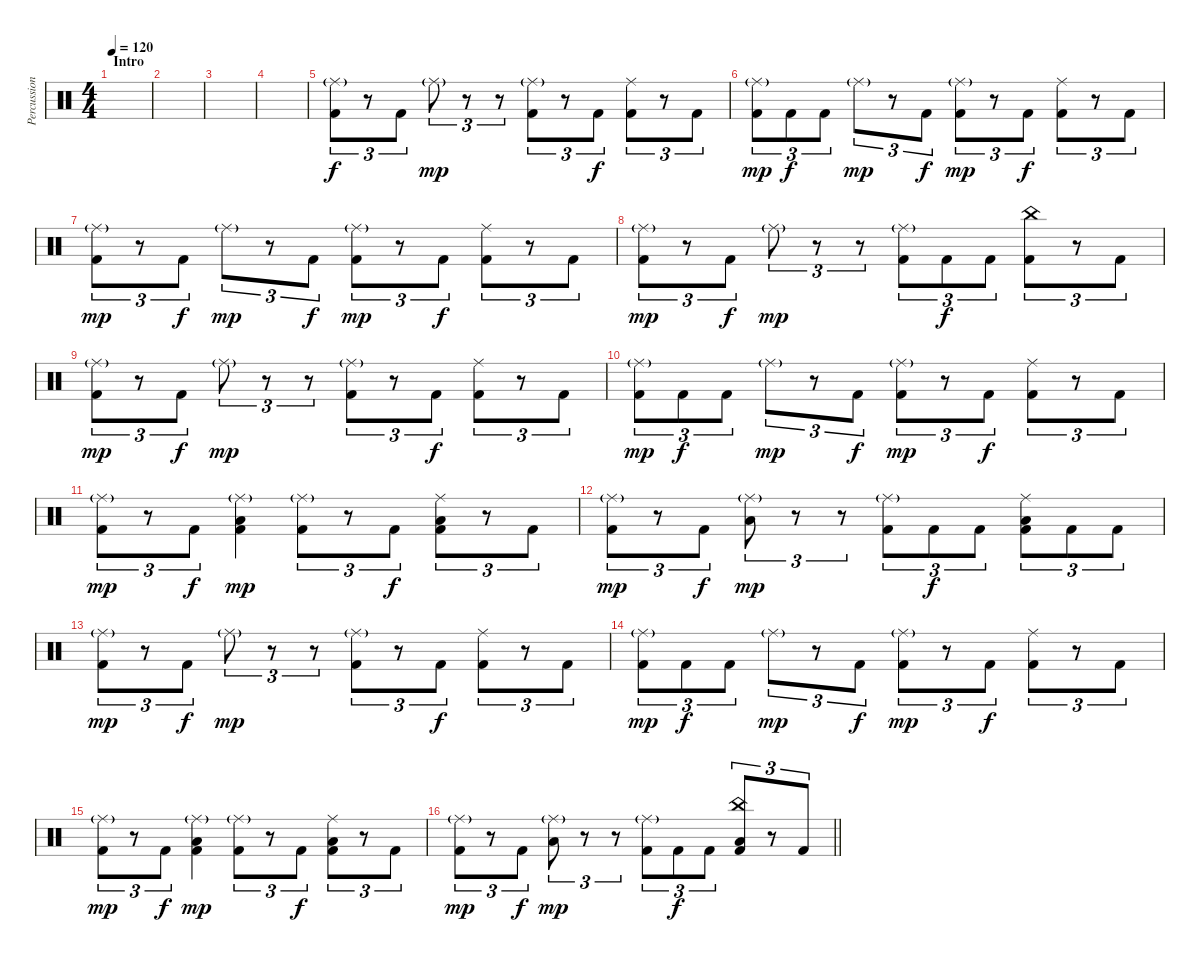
\track ("Percussion" "Percussion") {instrument percussion}
\staff {score}
\articulation defaults
\ts (4 4)
\section ("" "Intro")
\tempo 120
\clef neutral
\ks c
|
|
|
|
("Ride (middle)"{g} "Kick (hit) 2").8{tu (3 2)} r.8{tu (3 2)} "Kick (hit) 2".8{tu (3 2) dy f} "Ride (middle)"{g}.8{tu (3 2) dy mp} r.8{tu (3 2)} r.8{tu (3 2)} ("Ride (middle)"{g} "Kick (hit) 2").8{tu (3 2)} r.8{tu (3 2)} "Kick (hit) 2".8{tu (3 2) dy f} ("Ride (middle)" "Kick (hit) 2").8{tu (3 2)} r.8{tu (3 2)} "Kick (hit) 2".8{tu (3 2)} |
("Ride (middle)"{g} "Kick (hit) 2").8{tu (3 2) dy mp} "Kick (hit) 2".8{tu (3 2) dy f} "Kick (hit) 2".8{tu (3 2)} "Ride (middle)"{g}.8{tu (3 2) dy mp} r.8{tu (3 2)} "Kick (hit) 2".8{tu (3 2) dy f} ("Ride (middle)"{g} "Kick (hit) 2").8{tu (3 2) dy mp} r.8{tu (3 2)} "Kick (hit) 2".8{tu (3 2) dy f} ("Ride (middle)" "Kick (hit) 2").8{tu (3 2)} r.8{tu (3 2)} "Kick (hit) 2".8{tu (3 2)} |
("Ride (middle)"{g} "Kick (hit) 2").8{tu (3 2) dy mp} r.8{tu (3 2)} "Kick (hit) 2".8{tu (3 2) dy f} "Ride (middle)"{g}.8{tu (3 2) dy mp} r.8{tu (3 2)} "Kick (hit) 2".8{tu (3 2) dy f} ("Ride (middle)"{g} "Kick (hit) 2").8{tu (3 2) dy mp} r.8{tu (3 2)} "Kick (hit) 2".8{tu (3 2) dy f} ("Ride (middle)" "Kick (hit) 2").8{tu (3 2)} r.8{tu (3 2)} "Kick (hit) 2".8{tu (3 2)} |
("Ride (middle)"{g} "Kick (hit) 2").8{tu (3 2) dy mp} r.8{tu (3 2)} "Kick (hit) 2".8{tu (3 2) dy f} "Ride (middle)"{g}.8{tu (3 2) dy mp} r.8{tu (3 2)} r.8{tu (3 2)} ("Ride (middle)"{g} "Kick (hit) 2").8{tu (3 2)} "Kick (hit) 2".8{tu (3 2) dy f} "Kick (hit) 2".8{tu (3 2)} ("China (hit)" "Kick (hit) 2").8{tu (3 2)} r.8{tu (3 2)} "Kick (hit) 2".8{tu (3 2)} |
("Ride (middle)"{g} "Kick (hit) 2").8{tu (3 2) dy mp} r.8{tu (3 2)} "Kick (hit) 2".8{tu (3 2) dy f} "Ride (middle)"{g}.8{tu (3 2) dy mp} r.8{tu (3 2)} r.8{tu (3 2)} ("Ride (middle)"{g} "Kick (hit) 2").8{tu (3 2)} r.8{tu (3 2)} "Kick (hit) 2".8{tu (3 2) dy f} ("Ride (middle)" "Kick (hit) 2").8{tu (3 2)} r.8{tu (3 2)} "Kick (hit) 2".8{tu (3 2)} |
("Ride (middle)"{g} "Kick (hit) 2").8{tu (3 2) dy mp} "Kick (hit) 2".8{tu (3 2) dy f} "Kick (hit) 2".8{tu (3 2)} "Ride (middle)"{g}.8{tu (3 2) dy mp} r.8{tu (3 2)} "Kick (hit) 2".8{tu (3 2) dy f} ("Ride (middle)"{g} "Kick (hit) 2").8{tu (3 2) dy mp} r.8{tu (3 2)} "Kick (hit) 2".8{tu (3 2) dy f} ("Ride (middle)" "Kick (hit) 2").8{tu (3 2)} r.8{tu (3 2)} "Kick (hit) 2".8{tu (3 2)} |
("Ride (middle)"{g} "Kick (hit) 2").8{tu (3 2) dy mp} r.8{tu (3 2)} "Kick (hit) 2".8{tu (3 2) dy f} ("Ride (middle)"{g} "Low Floor Tom (hit)" "Kick (hit) 2").4{dy mp} ("Ride (middle)"{g} "Kick (hit) 2").8{tu (3 2)} r.8{tu (3 2)} "Kick (hit) 2".8{tu (3 2) dy f} ("Ride (middle)" "Low Floor Tom (hit)" "Kick (hit) 2").8{tu (3 2)} r.8{tu (3 2)} "Kick (hit) 2".8{tu (3 2)} |
("Ride (middle)"{g} "Kick (hit) 2").8{tu (3 2) dy mp} r.8{tu (3 2)} "Kick (hit) 2".8{tu (3 2) dy f} ("Ride (middle)"{g} "Low Floor Tom (hit)").8{tu (3 2) dy mp} r.8{tu (3 2)} r.8{tu (3 2)} ("Ride (middle)"{g} "Kick (hit) 2").8{tu (3 2)} "Kick (hit) 2".8{tu (3 2) dy f} "Kick (hit) 2".8{tu (3 2)} ("Ride (middle)" "Low Floor Tom (hit)" "Kick (hit) 2").8{tu (3 2)} "Kick (hit) 2".8{tu (3 2)} "Kick (hit) 2".8{tu (3 2)} |
("Ride (middle)"{g} "Kick (hit) 2").8{tu (3 2) dy mp} r.8{tu (3 2)} "Kick (hit) 2".8{tu (3 2) dy f} "Ride (middle)"{g}.8{tu (3 2) dy mp} r.8{tu (3 2)} r.8{tu (3 2)} ("Ride (middle)"{g} "Kick (hit) 2").8{tu (3 2)} r.8{tu (3 2)} "Kick (hit) 2".8{tu (3 2) dy f} ("Ride (middle)" "Kick (hit) 2").8{tu (3 2)} r.8{tu (3 2)} "Kick (hit) 2".8{tu (3 2)} |
("Ride (middle)"{g} "Kick (hit) 2").8{tu (3 2) dy mp} "Kick (hit) 2".8{tu (3 2) dy f} "Kick (hit) 2".8{tu (3 2)} "Ride (middle)"{g}.8{tu (3 2) dy mp} r.8{tu (3 2)} "Kick (hit) 2".8{tu (3 2) dy f} ("Ride (middle)"{g} "Kick (hit) 2").8{tu (3 2) dy mp} r.8{tu (3 2)} "Kick (hit) 2".8{tu (3 2) dy f} ("Ride (middle)" "Kick (hit) 2").8{tu (3 2)} r.8{tu (3 2)} "Kick (hit) 2".8{tu (3 2)} |
("Ride (middle)"{g} "Kick (hit) 2").8{tu (3 2) dy mp} r.8{tu (3 2)} "Kick (hit) 2".8{tu (3 2) dy f} ("Ride (middle)"{g} "Low Floor Tom (hit)" "Kick (hit) 2").4{dy mp} ("Ride (middle)"{g} "Kick (hit) 2").8{tu (3 2)} r.8{tu (3 2)} "Kick (hit) 2".8{tu (3 2) dy f} ("Ride (middle)" "Low Floor Tom (hit)" "Kick (hit) 2").8{tu (3 2)} r.8{tu (3 2)} "Kick (hit) 2".8{tu (3 2)} |
\barLineRight lightlight
("Ride (middle)"{g} "Kick (hit) 2").8{tu (3 2) dy mp} r.8{tu (3 2)} "Kick (hit) 2".8{tu (3 2) dy f} ("Ride (middle)"{g} "Low Floor Tom (hit)").8{tu (3 2) dy mp} r.8{tu (3 2)} r.8{tu (3 2)} ("Ride (middle)"{g} "Kick (hit) 2").8{tu (3 2)} "Kick (hit) 2".8{tu (3 2) dy f} "Kick (hit) 2".8{tu (3 2)} ("China (hit)" "Low Floor Tom (hit)" "Kick (hit) 2").8{tu (3 2)} r.8{tu (3 2)} "Kick (hit) 2".8{tu (3 2)}
